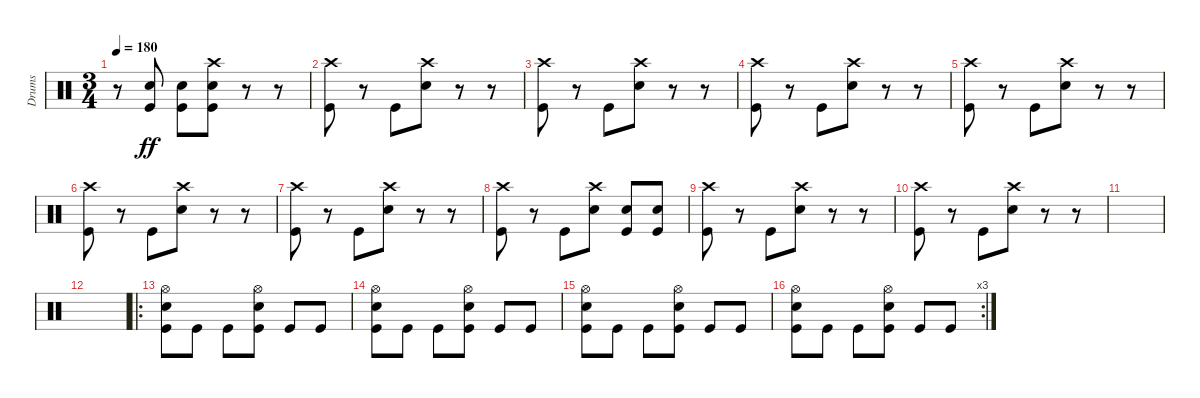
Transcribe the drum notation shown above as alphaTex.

\track ("Drums" "Drums") {instrument percussion}
\staff {score}
\articulation defaults
\ts (3 4)
\tempo 180
\clef neutral
\ks c
r.8{dy ff} ("Snare (hit) 2" "Kick (hit)").8 ("Snare (hit) 2" "Kick (hit)").8 ("Crash high (hit)" "Snare (hit) 2" "Kick (hit)").8 r.8 r.8 |
("Crash high (hit)" "Kick (hit)").8 r.8 "Kick (hit)".8 ("Crash high (hit)" "Snare (hit) 2").8 r.8 r.8 |
("Crash high (hit)" "Kick (hit)").8 r.8 "Kick (hit)".8 ("Crash high (hit)" "Snare (hit) 2").8 r.8 r.8 |
("Crash high (hit)" "Kick (hit)").8 r.8 "Kick (hit)".8 ("Crash high (hit)" "Snare (hit) 2").8 r.8 r.8 |
("Crash high (hit)" "Kick (hit)").8 r.8 "Kick (hit)".8 ("Crash high (hit)" "Snare (hit) 2").8 r.8 r.8 |
("Crash high (hit)" "Kick (hit)").8 r.8 "Kick (hit)".8 ("Crash high (hit)" "Snare (hit) 2").8 r.8 r.8 |
("Crash high (hit)" "Kick (hit)").8 r.8 "Kick (hit)".8 ("Crash high (hit)" "Snare (hit) 2").8 r.8 r.8 |
("Crash high (hit)" "Kick (hit)").8 r.8 "Kick (hit)".8 ("Crash high (hit)" "Snare (hit) 2").8 ("Snare (hit) 2" "Kick (hit)").8 ("Snare (hit) 2" "Kick (hit)").8 |
("Crash high (hit)" "Kick (hit)").8 r.8 "Kick (hit)".8 ("Crash high (hit)" "Snare (hit) 2").8 r.8 r.8 |
("Crash high (hit)" "Kick (hit)").8 r.8 "Kick (hit)".8 ("Crash high (hit)" "Snare (hit) 2").8 r.8 r.8 |
|
|
\ro
("Hi-Hat (open)" "Snare (hit) 2" "Kick (hit)").8 "Kick (hit)".8 "Kick (hit)".8 ("Hi-Hat (open)" "Snare (hit) 2" "Kick (hit)").8 "Kick (hit)".8 "Kick (hit)".8 |
("Hi-Hat (open)" "Snare (hit) 2" "Kick (hit)").8 "Kick (hit)".8 "Kick (hit)".8 ("Hi-Hat (open)" "Snare (hit) 2" "Kick (hit)").8 "Kick (hit)".8 "Kick (hit)".8 |
("Hi-Hat (open)" "Snare (hit) 2" "Kick (hit)").8 "Kick (hit)".8 "Kick (hit)".8 ("Hi-Hat (open)" "Snare (hit) 2" "Kick (hit)").8 "Kick (hit)".8 "Kick (hit)".8 |
\rc 3
("Hi-Hat (open)" "Snare (hit) 2" "Kick (hit)").8 "Kick (hit)".8 "Kick (hit)".8 ("Hi-Hat (open)" "Snare (hit) 2" "Kick (hit)").8 "Kick (hit)".8 "Kick (hit)".8
